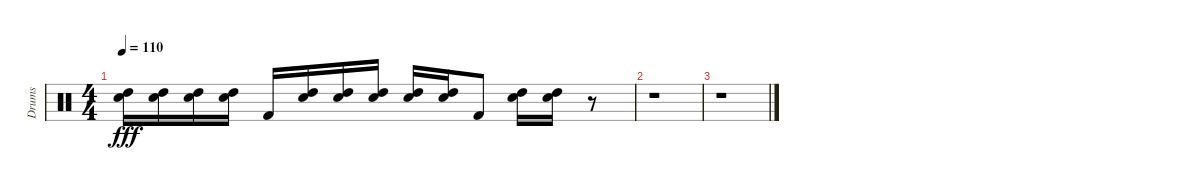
\track ("Drums" "Drums") {instrument percussion}
\staff {score}
\articulation defaults
\ts (4 4)
\tempo 110
\clef neutral
\ks c
("High Tom (hit)" "Electric Snare (hit)").16{dy fff} ("High Tom (hit)" "Electric Snare (hit)").16 ("High Tom (hit)" "Electric Snare (hit)").16 ("High Tom (hit)" "Electric Snare (hit)").16 "Kick (hit) 2".16 ("High Tom (hit)" "Electric Snare (hit)").16 ("High Tom (hit)" "Electric Snare (hit)").16 ("High Tom (hit)" "Electric Snare (hit)").16 ("High Tom (hit)" "Electric Snare (hit)").16 ("High Tom (hit)" "Electric Snare (hit)").16 "Kick (hit) 2".8 ("High Tom (hit)" "Electric Snare (hit)").16 ("High Tom (hit)" "Electric Snare (hit)").16 r.8 |
r.1 |
r.1
